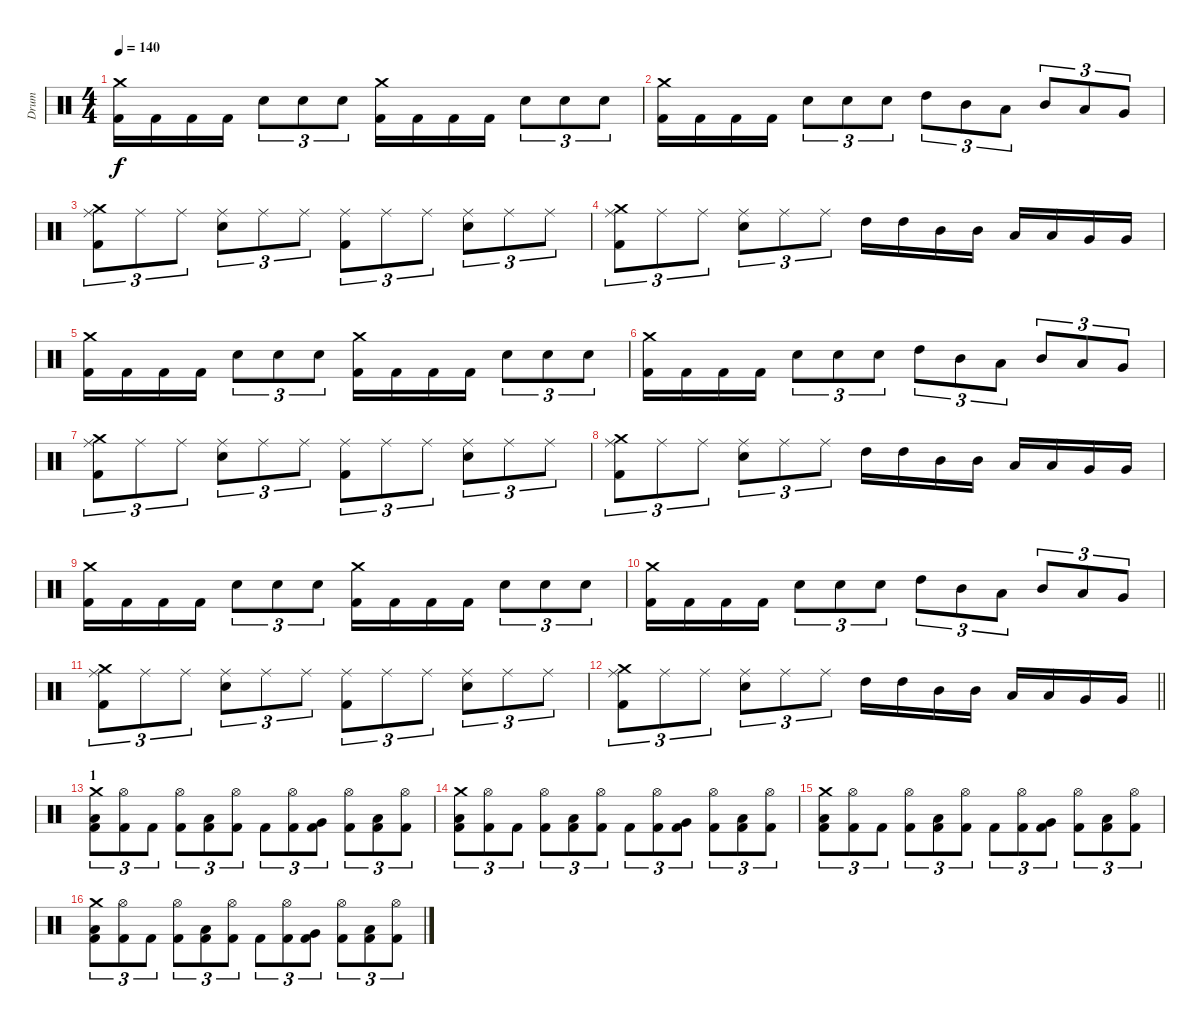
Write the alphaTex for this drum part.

\track ("Drum" "Drum") {instrument percussion}
\staff {score}
\articulation defaults
\ts (4 4)
\tempo 140
\clef neutral
\ks c
("Crash medium (hit)" "Kick (hit) 2").16{dy f} "Kick (hit) 2".16 "Kick (hit) 2".16 "Kick (hit) 2".16 "Electric Snare (hit)".8{tu (3 2)} "Electric Snare (hit)".8{tu (3 2)} "Electric Snare (hit)".8{tu (3 2)} ("Crash medium (hit)" "Kick (hit) 2").16 "Kick (hit) 2".16 "Kick (hit) 2".16 "Kick (hit) 2".16 "Electric Snare (hit)".8{tu (3 2)} "Electric Snare (hit)".8{tu (3 2)} "Electric Snare (hit)".8{tu (3 2)} |
("Crash medium (hit)" "Kick (hit) 2").16 "Kick (hit) 2".16 "Kick (hit) 2".16 "Kick (hit) 2".16 "Electric Snare (hit)".8{tu (3 2)} "Electric Snare (hit)".8{tu (3 2)} "Electric Snare (hit)".8{tu (3 2)} "High Tom (hit)".8{tu (3 2)} "Mid Tom (hit)".8{tu (3 2)} "Low Tom (hit)".8{tu (3 2)} "Mid Tom (hit)".8{tu (3 2)} "Low Tom (hit)".8{tu (3 2)} "Very Low Tom (hit)".8{tu (3 2)} |
("Crash medium (hit)" "Ride (middle)" "Kick (hit) 2").8{tu (3 2)} "Ride (middle)".8{tu (3 2)} "Ride (middle)".8{tu (3 2)} ("Ride (middle)" "Electric Snare (hit)").8{tu (3 2)} "Ride (middle)".8{tu (3 2)} "Ride (middle)".8{tu (3 2)} ("Ride (middle)" "Kick (hit) 2").8{tu (3 2)} "Ride (middle)".8{tu (3 2)} "Ride (middle)".8{tu (3 2)} ("Ride (middle)" "Electric Snare (hit)").8{tu (3 2)} "Ride (middle)".8{tu (3 2)} "Ride (middle)".8{tu (3 2)} |
("Crash medium (hit)" "Ride (middle)" "Kick (hit) 2").8{tu (3 2)} "Ride (middle)".8{tu (3 2)} "Ride (middle)".8{tu (3 2)} ("Ride (middle)" "Electric Snare (hit)").8{tu (3 2)} "Ride (middle)".8{tu (3 2)} "Ride (middle)".8{tu (3 2)} "High Tom (hit)".16 "High Tom (hit)".16 "Mid Tom (hit)".16 "Mid Tom (hit)".16 "Low Tom (hit)".16 "Low Tom (hit)".16 "Very Low Tom (hit)".16 "Very Low Tom (hit)".16 |
("Crash medium (hit)" "Kick (hit) 2").16 "Kick (hit) 2".16 "Kick (hit) 2".16 "Kick (hit) 2".16 "Electric Snare (hit)".8{tu (3 2)} "Electric Snare (hit)".8{tu (3 2)} "Electric Snare (hit)".8{tu (3 2)} ("Crash medium (hit)" "Kick (hit) 2").16 "Kick (hit) 2".16 "Kick (hit) 2".16 "Kick (hit) 2".16 "Electric Snare (hit)".8{tu (3 2)} "Electric Snare (hit)".8{tu (3 2)} "Electric Snare (hit)".8{tu (3 2)} |
("Crash medium (hit)" "Kick (hit) 2").16 "Kick (hit) 2".16 "Kick (hit) 2".16 "Kick (hit) 2".16 "Electric Snare (hit)".8{tu (3 2)} "Electric Snare (hit)".8{tu (3 2)} "Electric Snare (hit)".8{tu (3 2)} "High Tom (hit)".8{tu (3 2)} "Mid Tom (hit)".8{tu (3 2)} "Low Tom (hit)".8{tu (3 2)} "Mid Tom (hit)".8{tu (3 2)} "Low Tom (hit)".8{tu (3 2)} "Very Low Tom (hit)".8{tu (3 2)} |
("Crash medium (hit)" "Ride (middle)" "Kick (hit) 2").8{tu (3 2)} "Ride (middle)".8{tu (3 2)} "Ride (middle)".8{tu (3 2)} ("Ride (middle)" "Electric Snare (hit)").8{tu (3 2)} "Ride (middle)".8{tu (3 2)} "Ride (middle)".8{tu (3 2)} ("Ride (middle)" "Kick (hit) 2").8{tu (3 2)} "Ride (middle)".8{tu (3 2)} "Ride (middle)".8{tu (3 2)} ("Ride (middle)" "Electric Snare (hit)").8{tu (3 2)} "Ride (middle)".8{tu (3 2)} "Ride (middle)".8{tu (3 2)} |
("Crash medium (hit)" "Ride (middle)" "Kick (hit) 2").8{tu (3 2)} "Ride (middle)".8{tu (3 2)} "Ride (middle)".8{tu (3 2)} ("Ride (middle)" "Electric Snare (hit)").8{tu (3 2)} "Ride (middle)".8{tu (3 2)} "Ride (middle)".8{tu (3 2)} "High Tom (hit)".16 "High Tom (hit)".16 "Mid Tom (hit)".16 "Mid Tom (hit)".16 "Low Tom (hit)".16 "Low Tom (hit)".16 "Very Low Tom (hit)".16 "Very Low Tom (hit)".16 |
("Crash medium (hit)" "Kick (hit) 2").16 "Kick (hit) 2".16 "Kick (hit) 2".16 "Kick (hit) 2".16 "Electric Snare (hit)".8{tu (3 2)} "Electric Snare (hit)".8{tu (3 2)} "Electric Snare (hit)".8{tu (3 2)} ("Crash medium (hit)" "Kick (hit) 2").16 "Kick (hit) 2".16 "Kick (hit) 2".16 "Kick (hit) 2".16 "Electric Snare (hit)".8{tu (3 2)} "Electric Snare (hit)".8{tu (3 2)} "Electric Snare (hit)".8{tu (3 2)} |
("Crash medium (hit)" "Kick (hit) 2").16 "Kick (hit) 2".16 "Kick (hit) 2".16 "Kick (hit) 2".16 "Electric Snare (hit)".8{tu (3 2)} "Electric Snare (hit)".8{tu (3 2)} "Electric Snare (hit)".8{tu (3 2)} "High Tom (hit)".8{tu (3 2)} "Mid Tom (hit)".8{tu (3 2)} "Low Tom (hit)".8{tu (3 2)} "Mid Tom (hit)".8{tu (3 2)} "Low Tom (hit)".8{tu (3 2)} "Very Low Tom (hit)".8{tu (3 2)} |
("Crash medium (hit)" "Ride (middle)" "Kick (hit) 2").8{tu (3 2)} "Ride (middle)".8{tu (3 2)} "Ride (middle)".8{tu (3 2)} ("Ride (middle)" "Electric Snare (hit)").8{tu (3 2)} "Ride (middle)".8{tu (3 2)} "Ride (middle)".8{tu (3 2)} ("Ride (middle)" "Kick (hit) 2").8{tu (3 2)} "Ride (middle)".8{tu (3 2)} "Ride (middle)".8{tu (3 2)} ("Ride (middle)" "Electric Snare (hit)").8{tu (3 2)} "Ride (middle)".8{tu (3 2)} "Ride (middle)".8{tu (3 2)} |
\barLineRight lightlight
("Crash medium (hit)" "Ride (middle)" "Kick (hit) 2").8{tu (3 2)} "Ride (middle)".8{tu (3 2)} "Ride (middle)".8{tu (3 2)} ("Ride (middle)" "Electric Snare (hit)").8{tu (3 2)} "Ride (middle)".8{tu (3 2)} "Ride (middle)".8{tu (3 2)} "High Tom (hit)".16 "High Tom (hit)".16 "Mid Tom (hit)".16 "Mid Tom (hit)".16 "Low Tom (hit)".16 "Low Tom (hit)".16 "Very Low Tom (hit)".16 "Very Low Tom (hit)".16 |
\section ("" "1")
("Crash medium (hit)" "Low Tom (hit)" "Kick (hit) 2").8{tu (3 2)} ("Hi-Hat (open)" "Kick (hit) 2").8{tu (3 2)} "Kick (hit) 2".8{tu (3 2)} ("Hi-Hat (open)" "Kick (hit) 2").8{tu (3 2)} ("Low Tom (hit)" "Kick (hit) 2").8{tu (3 2)} ("Hi-Hat (open)" "Kick (hit) 2").8{tu (3 2)} "Kick (hit) 2".8{tu (3 2)} ("Hi-Hat (open)" "Kick (hit) 2").8{tu (3 2)} ("Very Low Tom (hit)" "Kick (hit) 2").8{tu (3 2)} ("Hi-Hat (open)" "Kick (hit) 2").8{tu (3 2)} ("Low Floor Tom (hit)" "Kick (hit) 2").8{tu (3 2)} ("Hi-Hat (open)" "Kick (hit) 2").8{tu (3 2)} |
("Crash medium (hit)" "Low Tom (hit)" "Kick (hit) 2").8{tu (3 2)} ("Hi-Hat (open)" "Kick (hit) 2").8{tu (3 2)} "Kick (hit) 2".8{tu (3 2)} ("Hi-Hat (open)" "Kick (hit) 2").8{tu (3 2)} ("Low Tom (hit)" "Kick (hit) 2").8{tu (3 2)} ("Hi-Hat (open)" "Kick (hit) 2").8{tu (3 2)} "Kick (hit) 2".8{tu (3 2)} ("Hi-Hat (open)" "Kick (hit) 2").8{tu (3 2)} ("Very Low Tom (hit)" "Kick (hit) 2").8{tu (3 2)} ("Hi-Hat (open)" "Kick (hit) 2").8{tu (3 2)} ("Low Floor Tom (hit)" "Kick (hit) 2").8{tu (3 2)} ("Hi-Hat (open)" "Kick (hit) 2").8{tu (3 2)} |
("Crash medium (hit)" "Low Tom (hit)" "Kick (hit) 2").8{tu (3 2)} ("Hi-Hat (open)" "Kick (hit) 2").8{tu (3 2)} "Kick (hit) 2".8{tu (3 2)} ("Hi-Hat (open)" "Kick (hit) 2").8{tu (3 2)} ("Low Tom (hit)" "Kick (hit) 2").8{tu (3 2)} ("Hi-Hat (open)" "Kick (hit) 2").8{tu (3 2)} "Kick (hit) 2".8{tu (3 2)} ("Hi-Hat (open)" "Kick (hit) 2").8{tu (3 2)} ("Very Low Tom (hit)" "Kick (hit) 2").8{tu (3 2)} ("Hi-Hat (open)" "Kick (hit) 2").8{tu (3 2)} ("Low Floor Tom (hit)" "Kick (hit) 2").8{tu (3 2)} ("Hi-Hat (open)" "Kick (hit) 2").8{tu (3 2)} |
("Crash medium (hit)" "Low Tom (hit)" "Kick (hit) 2").8{tu (3 2)} ("Hi-Hat (open)" "Kick (hit) 2").8{tu (3 2)} "Kick (hit) 2".8{tu (3 2)} ("Hi-Hat (open)" "Kick (hit) 2").8{tu (3 2)} ("Low Tom (hit)" "Kick (hit) 2").8{tu (3 2)} ("Hi-Hat (open)" "Kick (hit) 2").8{tu (3 2)} "Kick (hit) 2".8{tu (3 2)} ("Hi-Hat (open)" "Kick (hit) 2").8{tu (3 2)} ("Very Low Tom (hit)" "Kick (hit) 2").8{tu (3 2)} ("Hi-Hat (open)" "Kick (hit) 2").8{tu (3 2)} ("Low Floor Tom (hit)" "Kick (hit) 2").8{tu (3 2)} ("Hi-Hat (open)" "Kick (hit) 2").8{tu (3 2)}
